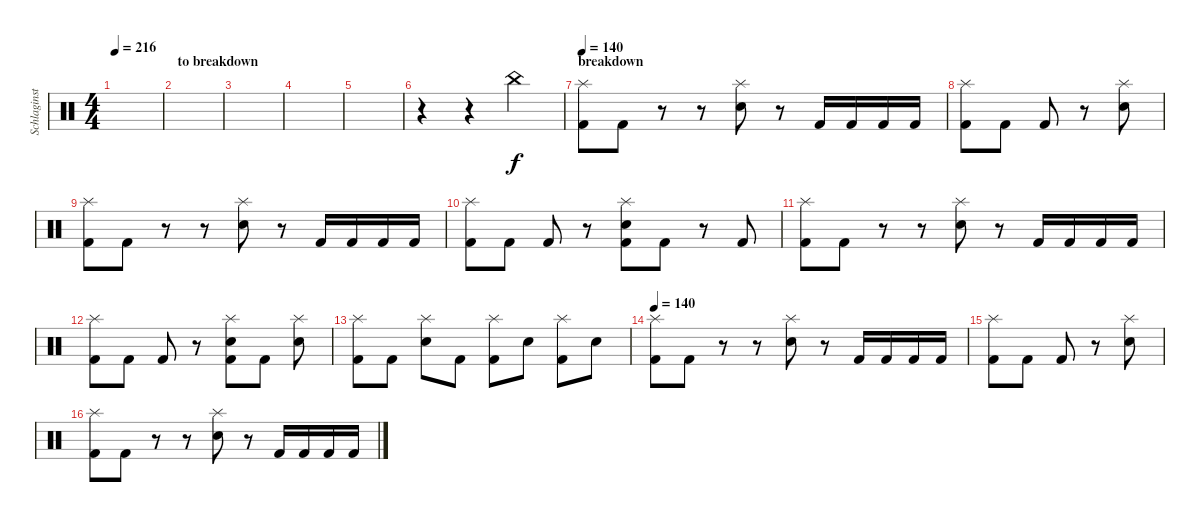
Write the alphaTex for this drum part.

\track ("Schlaginstrumente - Auswahl" "Schlaginst") {instrument percussion}
\staff {score}
\articulation defaults
\ts (4 4)
\tempo 216
\clef neutral
\ks c
|
\section ("" "to breakdown")
|
|
|
|
r.4 r.4 "China (hit)".4 |
\section ("" "breakdown")
\tempo 140
("Splash (hit)" "Kick (hit) 2").8 "Kick (hit) 2".8 r.8 r.8 ("Electric Snare (hit)" "Splash (hit)").8 r.8 "Kick (hit) 2".16 "Kick (hit) 2".16 "Kick (hit) 2".16 "Kick (hit) 2".16 |
("Splash (hit)" "Kick (hit) 2").8 "Kick (hit) 2".8 "Kick (hit) 2".8 r.8 ("Electric Snare (hit)" "Splash (hit)").8 |
("Splash (hit)" "Kick (hit) 2").8 "Kick (hit) 2".8 r.8 r.8 ("Electric Snare (hit)" "Splash (hit)").8 r.8 "Kick (hit) 2".16 "Kick (hit) 2".16 "Kick (hit) 2".16 "Kick (hit) 2".16 |
("Splash (hit)" "Kick (hit) 2").8 "Kick (hit) 2".8 "Kick (hit) 2".8 r.8 ("Electric Snare (hit)" "Splash (hit)" "Kick (hit) 2").8 "Kick (hit) 2".8 r.8 "Kick (hit) 2".8 |
("Splash (hit)" "Kick (hit) 2").8 "Kick (hit) 2".8 r.8 r.8 ("Electric Snare (hit)" "Splash (hit)").8 r.8 "Kick (hit) 2".16 "Kick (hit) 2".16 "Kick (hit) 2".16 "Kick (hit) 2".16 |
("Splash (hit)" "Kick (hit) 2").8 "Kick (hit) 2".8 "Kick (hit) 2".8 r.8 ("Electric Snare (hit)" "Splash (hit)" "Kick (hit) 2").8 "Kick (hit) 2".8 ("Electric Snare (hit)" "Splash (hit)").8 |
("Splash (hit)" "Kick (hit) 2").8 "Kick (hit) 2".8 ("Electric Snare (hit)" "Splash (hit)").8 "Kick (hit) 2".8 ("Splash (hit)" "Kick (hit) 2").8 "Electric Snare (hit)".8 ("Splash (hit)" "Kick (hit) 2").8 "Electric Snare (hit)".8 |
\tempo 140
("Splash (hit)" "Kick (hit) 2").8 "Kick (hit) 2".8 r.8 r.8 ("Electric Snare (hit)" "Splash (hit)").8 r.8 "Kick (hit) 2".16 "Kick (hit) 2".16 "Kick (hit) 2".16 "Kick (hit) 2".16 |
("Splash (hit)" "Kick (hit) 2").8 "Kick (hit) 2".8 "Kick (hit) 2".8 r.8 ("Electric Snare (hit)" "Splash (hit)").8 |
("Splash (hit)" "Kick (hit) 2").8 "Kick (hit) 2".8 r.8 r.8 ("Electric Snare (hit)" "Splash (hit)").8 r.8 "Kick (hit) 2".16 "Kick (hit) 2".16 "Kick (hit) 2".16 "Kick (hit) 2".16
